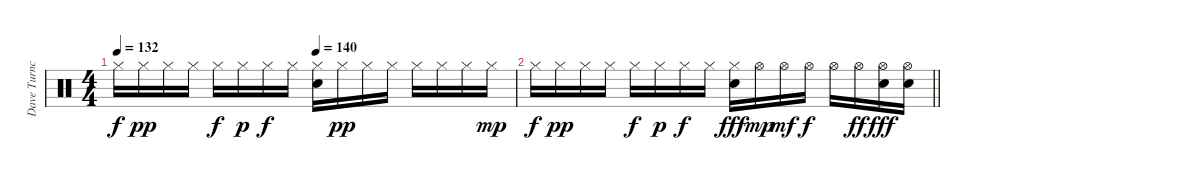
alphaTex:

\track ("Dave Turncrantz" "Dave Turnc") {instrument percussion}
\staff {score}
\articulation defaults
\ts (4 4)
\tempo 132
\tempo (140 0.5)
\clef neutral
\ks c "Hi-Hat (closed)".16{dy f} "Hi-Hat (closed)".16{dy pp} "Hi-Hat (closed)".16 "Hi-Hat (closed)".16 "Hi-Hat (closed)".16{dy f} "Hi-Hat (closed)".16{dy p} "Hi-Hat (closed)".16{dy f} "Hi-Hat (closed)".16
("Hi-Hat (closed)" "Electric Snare (hit)").16 "Hi-Hat (closed)".16{dy pp} "Hi-Hat (closed)".16 "Hi-Hat (closed)".16 "Hi-Hat (closed)".16 "Hi-Hat (closed)".16 "Hi-Hat (closed)".16 "Hi-Hat (closed)".16{dy mp} |
\barLineRight lightlight "Hi-Hat (closed)".16{dy f} "Hi-Hat (closed)".16{dy pp} "Hi-Hat (closed)".16 "Hi-Hat (closed)".16 "Hi-Hat (closed)".16{dy f} "Hi-Hat (closed)".16{dy p} "Hi-Hat (closed)".16{dy f} "Hi-Hat (closed)".16
("Hi-Hat (closed)" "Electric Snare (hit)").16{dy fff} "Hi-Hat (open)".16{dy mp} "Hi-Hat (open)".16{dy mf} "Hi-Hat (open)".16{dy f} "Hi-Hat (open)".16 "Hi-Hat (open)".16{dy ff} ("Hi-Hat (open)" "Electric Snare (hit)").16{dy fff} ("Hi-Hat (open)" "Electric Snare (hit)").16
